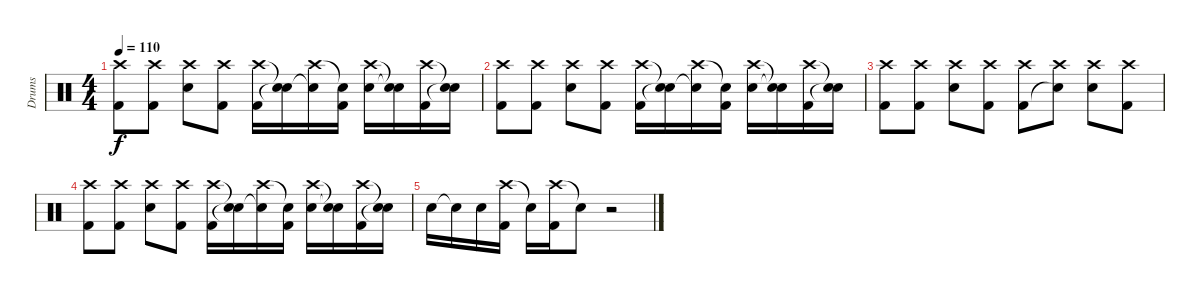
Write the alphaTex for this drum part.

\track ("Drums" "Drums") {instrument percussion}
\staff {score}
\articulation defaults
\ts (4 4)
\tempo 110
\clef neutral
\ks c
("Crash high (hit)" "Kick (hit) 2").8{dy f} ("Crash high (hit)" "Kick (hit) 2").8 ("Crash high (hit)" "Snare (hit) 2").8 ("Crash high (hit)" "Kick (hit) 2").8 ("Crash high (hit)" "Kick (hit) 2").16 ("Snare (hit)"{t} "Snare (hit)"{t}).16 ("Crash high (hit)" "Snare (hit)"{t}).16 ("Snare (hit)"{t} "Kick (hit) 2").16 ("Crash high (hit)" "Snare (hit) 2").16 ("Snare (hit)"{t} "Snare (hit)"{t}).16 ("Crash high (hit)" "Kick (hit) 2").16 ("Snare (hit)"{t} "Snare (hit)"{t}).16 |
("Crash high (hit)" "Kick (hit) 2").8 ("Crash high (hit)" "Kick (hit) 2").8 ("Crash high (hit)" "Snare (hit) 2").8 ("Crash high (hit)" "Kick (hit) 2").8 ("Crash high (hit)" "Kick (hit) 2").16 ("Snare (hit)"{t} "Snare (hit)"{t}).16 ("Crash high (hit)" "Snare (hit)"{t}).16 ("Snare (hit)"{t} "Kick (hit) 2").16 ("Crash high (hit)" "Snare (hit) 2").16 ("Snare (hit)"{t} "Snare (hit)"{t}).16 ("Crash high (hit)" "Kick (hit) 2").16 ("Snare (hit)"{t} "Snare (hit)"{t}).16 |
("Crash high (hit)" "Kick (hit) 2").8 ("Crash high (hit)" "Kick (hit) 2").8 ("Crash high (hit)" "Snare (hit) 2").8 ("Crash high (hit)" "Kick (hit) 2").8 ("Crash high (hit)" "Kick (hit) 2").8 ("Crash high (hit)" "Snare (hit)"{t}).8 ("Crash high (hit)" "Snare (hit) 2").8 ("Crash high (hit)" "Kick (hit) 2").8 |
("Crash high (hit)" "Kick (hit) 2").8 ("Crash high (hit)" "Kick (hit) 2").8 ("Crash high (hit)" "Snare (hit) 2").8 ("Crash high (hit)" "Kick (hit) 2").8 ("Crash high (hit)" "Kick (hit) 2").16 ("Snare (hit)"{t} "Snare (hit)"{t}).16 ("Crash high (hit)" "Snare (hit)"{t}).16 ("Snare (hit)"{t} "Kick (hit) 2").16 ("Crash high (hit)" "Snare (hit) 2").16 ("Snare (hit)"{t} "Snare (hit)"{t}).16 ("Crash high (hit)" "Kick (hit) 2").16 ("Snare (hit)"{t} "Snare (hit)"{t}).16 |
"Snare (hit) 2".16 "Snare (hit)"{t}.16 "Snare (hit) 2".16 ("Crash high (hit)" "Kick (hit) 2").16 "Snare (hit)"{t}.16 ("Crash high (hit)" "Kick (hit) 2").16 "Snare (hit)"{t}.8 r.2
